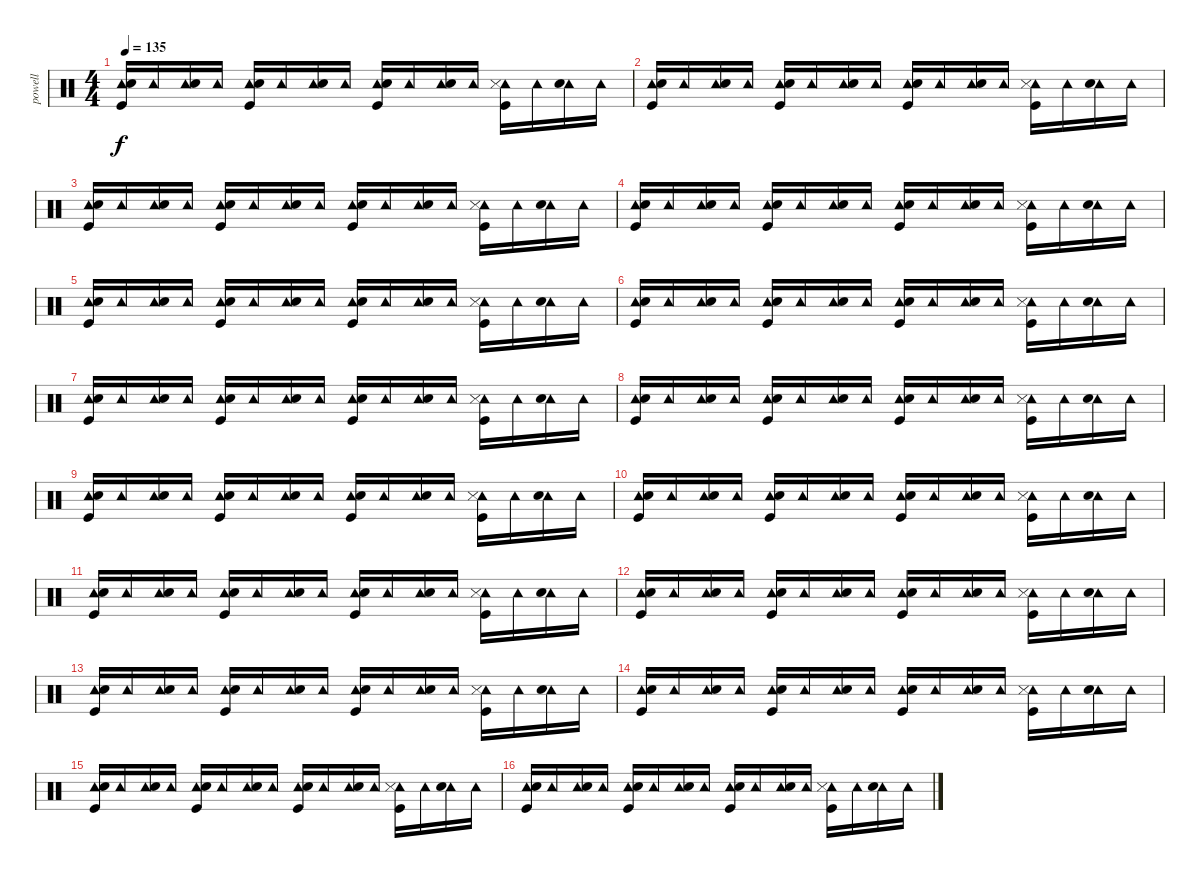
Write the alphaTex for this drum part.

\track ("powell" "powell") {instrument percussion}
\staff {score}
\articulation defaults
\ts (4 4)
\tempo 135
\clef neutral
\ks c
("Tambourine (hit)" "Electric Snare (hit)" "Kick (hit)").16{dy f} "Tambourine (hit)".16 ("Tambourine (hit)" "Electric Snare (hit)").16 "Tambourine (hit)".16 ("Tambourine (hit)" "Electric Snare (hit)" "Kick (hit)").16 "Tambourine (hit)".16 ("Tambourine (hit)" "Electric Snare (hit)").16 "Tambourine (hit)".16 ("Tambourine (hit)" "Electric Snare (hit)" "Kick (hit)").16 "Tambourine (hit)".16 ("Tambourine (hit)" "Electric Snare (hit)").16 "Tambourine (hit)".16 ("Tambourine (hit)" "Snare (side stick) 3" "Kick (hit)").16 "Tambourine (hit)".16 ("Tambourine (hit)" "Electric Snare (hit)").16 "Tambourine (hit)".16 |
("Tambourine (hit)" "Electric Snare (hit)" "Kick (hit)").16 "Tambourine (hit)".16 ("Tambourine (hit)" "Electric Snare (hit)").16 "Tambourine (hit)".16 ("Tambourine (hit)" "Electric Snare (hit)" "Kick (hit)").16 "Tambourine (hit)".16 ("Tambourine (hit)" "Electric Snare (hit)").16 "Tambourine (hit)".16 ("Tambourine (hit)" "Electric Snare (hit)" "Kick (hit)").16 "Tambourine (hit)".16 ("Tambourine (hit)" "Electric Snare (hit)").16 "Tambourine (hit)".16 ("Tambourine (hit)" "Snare (side stick) 3" "Kick (hit)").16 "Tambourine (hit)".16 ("Tambourine (hit)" "Electric Snare (hit)").16 "Tambourine (hit)".16 |
("Tambourine (hit)" "Electric Snare (hit)" "Kick (hit)").16 "Tambourine (hit)".16 ("Tambourine (hit)" "Electric Snare (hit)").16 "Tambourine (hit)".16 ("Tambourine (hit)" "Electric Snare (hit)" "Kick (hit)").16 "Tambourine (hit)".16 ("Tambourine (hit)" "Electric Snare (hit)").16 "Tambourine (hit)".16 ("Tambourine (hit)" "Electric Snare (hit)" "Kick (hit)").16 "Tambourine (hit)".16 ("Tambourine (hit)" "Electric Snare (hit)").16 "Tambourine (hit)".16 ("Tambourine (hit)" "Snare (side stick) 3" "Kick (hit)").16 "Tambourine (hit)".16 ("Tambourine (hit)" "Electric Snare (hit)").16 "Tambourine (hit)".16 |
("Tambourine (hit)" "Electric Snare (hit)" "Kick (hit)").16 "Tambourine (hit)".16 ("Tambourine (hit)" "Electric Snare (hit)").16 "Tambourine (hit)".16 ("Tambourine (hit)" "Electric Snare (hit)" "Kick (hit)").16 "Tambourine (hit)".16 ("Tambourine (hit)" "Electric Snare (hit)").16 "Tambourine (hit)".16 ("Tambourine (hit)" "Electric Snare (hit)" "Kick (hit)").16 "Tambourine (hit)".16 ("Tambourine (hit)" "Electric Snare (hit)").16 "Tambourine (hit)".16 ("Tambourine (hit)" "Snare (side stick) 3" "Kick (hit)").16 "Tambourine (hit)".16 ("Tambourine (hit)" "Electric Snare (hit)").16 "Tambourine (hit)".16 |
("Tambourine (hit)" "Electric Snare (hit)" "Kick (hit)").16 "Tambourine (hit)".16 ("Tambourine (hit)" "Electric Snare (hit)").16 "Tambourine (hit)".16 ("Tambourine (hit)" "Electric Snare (hit)" "Kick (hit)").16 "Tambourine (hit)".16 ("Tambourine (hit)" "Electric Snare (hit)").16 "Tambourine (hit)".16 ("Tambourine (hit)" "Electric Snare (hit)" "Kick (hit)").16 "Tambourine (hit)".16 ("Tambourine (hit)" "Electric Snare (hit)").16 "Tambourine (hit)".16 ("Tambourine (hit)" "Snare (side stick) 3" "Kick (hit)").16 "Tambourine (hit)".16 ("Tambourine (hit)" "Electric Snare (hit)").16 "Tambourine (hit)".16 |
("Tambourine (hit)" "Electric Snare (hit)" "Kick (hit)").16 "Tambourine (hit)".16 ("Tambourine (hit)" "Electric Snare (hit)").16 "Tambourine (hit)".16 ("Tambourine (hit)" "Electric Snare (hit)" "Kick (hit)").16 "Tambourine (hit)".16 ("Tambourine (hit)" "Electric Snare (hit)").16 "Tambourine (hit)".16 ("Tambourine (hit)" "Electric Snare (hit)" "Kick (hit)").16 "Tambourine (hit)".16 ("Tambourine (hit)" "Electric Snare (hit)").16 "Tambourine (hit)".16 ("Tambourine (hit)" "Snare (side stick) 3" "Kick (hit)").16 "Tambourine (hit)".16 ("Tambourine (hit)" "Electric Snare (hit)").16 "Tambourine (hit)".16 |
("Tambourine (hit)" "Electric Snare (hit)" "Kick (hit)").16 "Tambourine (hit)".16 ("Tambourine (hit)" "Electric Snare (hit)").16 "Tambourine (hit)".16 ("Tambourine (hit)" "Electric Snare (hit)" "Kick (hit)").16 "Tambourine (hit)".16 ("Tambourine (hit)" "Electric Snare (hit)").16 "Tambourine (hit)".16 ("Tambourine (hit)" "Electric Snare (hit)" "Kick (hit)").16 "Tambourine (hit)".16 ("Tambourine (hit)" "Electric Snare (hit)").16 "Tambourine (hit)".16 ("Tambourine (hit)" "Snare (side stick) 3" "Kick (hit)").16 "Tambourine (hit)".16 ("Tambourine (hit)" "Electric Snare (hit)").16 "Tambourine (hit)".16 |
("Tambourine (hit)" "Electric Snare (hit)" "Kick (hit)").16 "Tambourine (hit)".16 ("Tambourine (hit)" "Electric Snare (hit)").16 "Tambourine (hit)".16 ("Tambourine (hit)" "Electric Snare (hit)" "Kick (hit)").16 "Tambourine (hit)".16 ("Tambourine (hit)" "Electric Snare (hit)").16 "Tambourine (hit)".16 ("Tambourine (hit)" "Electric Snare (hit)" "Kick (hit)").16 "Tambourine (hit)".16 ("Tambourine (hit)" "Electric Snare (hit)").16 "Tambourine (hit)".16 ("Tambourine (hit)" "Snare (side stick) 3" "Kick (hit)").16 "Tambourine (hit)".16 ("Tambourine (hit)" "Electric Snare (hit)").16 "Tambourine (hit)".16 |
("Tambourine (hit)" "Electric Snare (hit)" "Kick (hit)").16 "Tambourine (hit)".16 ("Tambourine (hit)" "Electric Snare (hit)").16 "Tambourine (hit)".16 ("Tambourine (hit)" "Electric Snare (hit)" "Kick (hit)").16 "Tambourine (hit)".16 ("Tambourine (hit)" "Electric Snare (hit)").16 "Tambourine (hit)".16 ("Tambourine (hit)" "Electric Snare (hit)" "Kick (hit)").16 "Tambourine (hit)".16 ("Tambourine (hit)" "Electric Snare (hit)").16 "Tambourine (hit)".16 ("Tambourine (hit)" "Snare (side stick) 3" "Kick (hit)").16 "Tambourine (hit)".16 ("Tambourine (hit)" "Electric Snare (hit)").16 "Tambourine (hit)".16 |
("Tambourine (hit)" "Electric Snare (hit)" "Kick (hit)").16 "Tambourine (hit)".16 ("Tambourine (hit)" "Electric Snare (hit)").16 "Tambourine (hit)".16 ("Tambourine (hit)" "Electric Snare (hit)" "Kick (hit)").16 "Tambourine (hit)".16 ("Tambourine (hit)" "Electric Snare (hit)").16 "Tambourine (hit)".16 ("Tambourine (hit)" "Electric Snare (hit)" "Kick (hit)").16 "Tambourine (hit)".16 ("Tambourine (hit)" "Electric Snare (hit)").16 "Tambourine (hit)".16 ("Tambourine (hit)" "Snare (side stick) 3" "Kick (hit)").16 "Tambourine (hit)".16 ("Tambourine (hit)" "Electric Snare (hit)").16 "Tambourine (hit)".16 |
("Tambourine (hit)" "Electric Snare (hit)" "Kick (hit)").16 "Tambourine (hit)".16 ("Tambourine (hit)" "Electric Snare (hit)").16 "Tambourine (hit)".16 ("Tambourine (hit)" "Electric Snare (hit)" "Kick (hit)").16 "Tambourine (hit)".16 ("Tambourine (hit)" "Electric Snare (hit)").16 "Tambourine (hit)".16 ("Tambourine (hit)" "Electric Snare (hit)" "Kick (hit)").16 "Tambourine (hit)".16 ("Tambourine (hit)" "Electric Snare (hit)").16 "Tambourine (hit)".16 ("Tambourine (hit)" "Snare (side stick) 3" "Kick (hit)").16 "Tambourine (hit)".16 ("Tambourine (hit)" "Electric Snare (hit)").16 "Tambourine (hit)".16 |
("Tambourine (hit)" "Electric Snare (hit)" "Kick (hit)").16 "Tambourine (hit)".16 ("Tambourine (hit)" "Electric Snare (hit)").16 "Tambourine (hit)".16 ("Tambourine (hit)" "Electric Snare (hit)" "Kick (hit)").16 "Tambourine (hit)".16 ("Tambourine (hit)" "Electric Snare (hit)").16 "Tambourine (hit)".16 ("Tambourine (hit)" "Electric Snare (hit)" "Kick (hit)").16 "Tambourine (hit)".16 ("Tambourine (hit)" "Electric Snare (hit)").16 "Tambourine (hit)".16 ("Tambourine (hit)" "Snare (side stick) 3" "Kick (hit)").16 "Tambourine (hit)".16 ("Tambourine (hit)" "Electric Snare (hit)").16 "Tambourine (hit)".16 |
("Tambourine (hit)" "Electric Snare (hit)" "Kick (hit)").16 "Tambourine (hit)".16 ("Tambourine (hit)" "Electric Snare (hit)").16 "Tambourine (hit)".16 ("Tambourine (hit)" "Electric Snare (hit)" "Kick (hit)").16 "Tambourine (hit)".16 ("Tambourine (hit)" "Electric Snare (hit)").16 "Tambourine (hit)".16 ("Tambourine (hit)" "Electric Snare (hit)" "Kick (hit)").16 "Tambourine (hit)".16 ("Tambourine (hit)" "Electric Snare (hit)").16 "Tambourine (hit)".16 ("Tambourine (hit)" "Snare (side stick) 3" "Kick (hit)").16 "Tambourine (hit)".16 ("Tambourine (hit)" "Electric Snare (hit)").16 "Tambourine (hit)".16 |
("Tambourine (hit)" "Electric Snare (hit)" "Kick (hit)").16 "Tambourine (hit)".16 ("Tambourine (hit)" "Electric Snare (hit)").16 "Tambourine (hit)".16 ("Tambourine (hit)" "Electric Snare (hit)" "Kick (hit)").16 "Tambourine (hit)".16 ("Tambourine (hit)" "Electric Snare (hit)").16 "Tambourine (hit)".16 ("Tambourine (hit)" "Electric Snare (hit)" "Kick (hit)").16 "Tambourine (hit)".16 ("Tambourine (hit)" "Electric Snare (hit)").16 "Tambourine (hit)".16 ("Tambourine (hit)" "Snare (side stick) 3" "Kick (hit)").16 "Tambourine (hit)".16 ("Tambourine (hit)" "Electric Snare (hit)").16 "Tambourine (hit)".16 |
("Tambourine (hit)" "Electric Snare (hit)" "Kick (hit)").16 "Tambourine (hit)".16 ("Tambourine (hit)" "Electric Snare (hit)").16 "Tambourine (hit)".16 ("Tambourine (hit)" "Electric Snare (hit)" "Kick (hit)").16 "Tambourine (hit)".16 ("Tambourine (hit)" "Electric Snare (hit)").16 "Tambourine (hit)".16 ("Tambourine (hit)" "Electric Snare (hit)" "Kick (hit)").16 "Tambourine (hit)".16 ("Tambourine (hit)" "Electric Snare (hit)").16 "Tambourine (hit)".16 ("Tambourine (hit)" "Snare (side stick) 3" "Kick (hit)").16 "Tambourine (hit)".16 ("Tambourine (hit)" "Electric Snare (hit)").16 "Tambourine (hit)".16 |
("Tambourine (hit)" "Electric Snare (hit)" "Kick (hit)").16 "Tambourine (hit)".16 ("Tambourine (hit)" "Electric Snare (hit)").16 "Tambourine (hit)".16 ("Tambourine (hit)" "Electric Snare (hit)" "Kick (hit)").16 "Tambourine (hit)".16 ("Tambourine (hit)" "Electric Snare (hit)").16 "Tambourine (hit)".16 ("Tambourine (hit)" "Electric Snare (hit)" "Kick (hit)").16 "Tambourine (hit)".16 ("Tambourine (hit)" "Electric Snare (hit)").16 "Tambourine (hit)".16 ("Tambourine (hit)" "Snare (side stick) 3" "Kick (hit)").16 "Tambourine (hit)".16 ("Tambourine (hit)" "Electric Snare (hit)").16 "Tambourine (hit)".16
